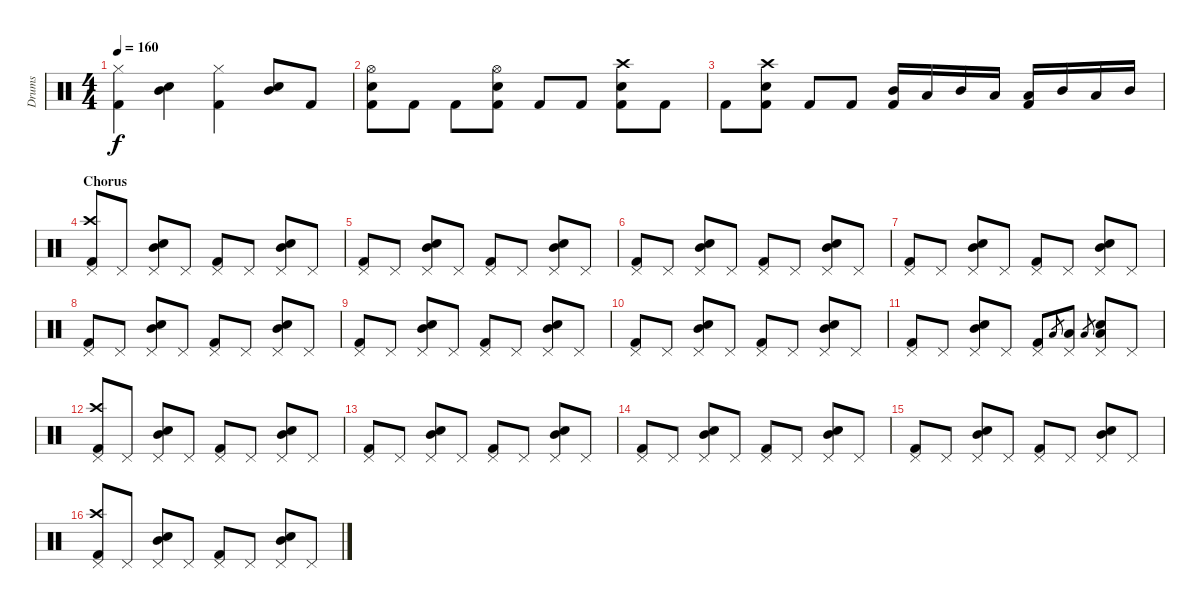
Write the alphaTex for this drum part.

\track ("Drums" "Drums") {instrument percussion}
\staff {score}
\articulation defaults
\ts (4 4)
\tempo 160
\clef neutral
\ks c
("Hi-Hat (closed)" "Kick (hit) 2").4{dy f} ("Snare (hit) 2" "Mid Tom (hit)").4 ("Hi-Hat (closed)" "Kick (hit) 2").4 ("Snare (hit) 2" "Mid Tom (hit)").8 "Kick (hit) 2".8 |
("Kick (hit) 2" "Hi-Hat (open)" "Snare (hit) 2").8 "Kick (hit) 2".8 "Kick (hit) 2".8 ("Kick (hit) 2" "Hi-Hat (open)" "Snare (hit) 2").8 "Kick (hit) 2".8 "Kick (hit) 2".8 ("Kick (hit) 2" "Crash high (hit)" "Snare (hit) 2").8 "Kick (hit) 2".8 |
"Kick (hit) 2".8 ("Kick (hit) 2" "Crash high (hit)" "Snare (hit) 2").8 "Kick (hit) 2".8 "Kick (hit) 2".8 ("Kick (hit) 2" "Mid Tom (hit)").16 "Low Tom (hit)".16 "Mid Tom (hit)".16 "Low Tom (hit)".16 ("Kick (hit) 2" "Low Tom (hit)").16 "Mid Tom (hit)".16 "Low Tom (hit)".16 "Mid Tom (hit)".16 |
\section ("" "Chorus")
("Kick (hit) 2" "Pedal Hi-Hat (hit)" "Crash high (hit)").8 "Pedal Hi-Hat (hit)".8 ("Snare (hit) 2" "Pedal Hi-Hat (hit)" "Mid Tom (hit)").8 "Pedal Hi-Hat (hit)".8 ("Kick (hit) 2" "Pedal Hi-Hat (hit)").8 "Pedal Hi-Hat (hit)".8 ("Snare (hit) 2" "Pedal Hi-Hat (hit)" "Mid Tom (hit)").8 "Pedal Hi-Hat (hit)".8 |
("Kick (hit) 2" "Pedal Hi-Hat (hit)").8 "Pedal Hi-Hat (hit)".8 ("Snare (hit) 2" "Pedal Hi-Hat (hit)" "Mid Tom (hit)").8 "Pedal Hi-Hat (hit)".8 ("Kick (hit) 2" "Pedal Hi-Hat (hit)").8 "Pedal Hi-Hat (hit)".8 ("Snare (hit) 2" "Pedal Hi-Hat (hit)" "Mid Tom (hit)").8 "Pedal Hi-Hat (hit)".8 |
("Kick (hit) 2" "Pedal Hi-Hat (hit)").8 "Pedal Hi-Hat (hit)".8 ("Snare (hit) 2" "Pedal Hi-Hat (hit)" "Mid Tom (hit)").8 "Pedal Hi-Hat (hit)".8 ("Kick (hit) 2" "Pedal Hi-Hat (hit)").8 "Pedal Hi-Hat (hit)".8 ("Snare (hit) 2" "Pedal Hi-Hat (hit)" "Mid Tom (hit)").8 "Pedal Hi-Hat (hit)".8 |
("Kick (hit) 2" "Pedal Hi-Hat (hit)").8 "Pedal Hi-Hat (hit)".8 ("Snare (hit) 2" "Pedal Hi-Hat (hit)" "Mid Tom (hit)").8 "Pedal Hi-Hat (hit)".8 ("Kick (hit) 2" "Pedal Hi-Hat (hit)").8 "Pedal Hi-Hat (hit)".8 ("Snare (hit) 2" "Pedal Hi-Hat (hit)" "Mid Tom (hit)").8 "Pedal Hi-Hat (hit)".8 |
("Kick (hit) 2" "Pedal Hi-Hat (hit)").8 "Pedal Hi-Hat (hit)".8 ("Snare (hit) 2" "Pedal Hi-Hat (hit)" "Mid Tom (hit)").8 "Pedal Hi-Hat (hit)".8 ("Kick (hit) 2" "Pedal Hi-Hat (hit)").8 "Pedal Hi-Hat (hit)".8 ("Snare (hit) 2" "Pedal Hi-Hat (hit)" "Mid Tom (hit)").8 "Pedal Hi-Hat (hit)".8 |
("Kick (hit) 2" "Pedal Hi-Hat (hit)").8 "Pedal Hi-Hat (hit)".8 ("Snare (hit) 2" "Pedal Hi-Hat (hit)" "Mid Tom (hit)").8 "Pedal Hi-Hat (hit)".8 ("Kick (hit) 2" "Pedal Hi-Hat (hit)").8 "Pedal Hi-Hat (hit)".8 ("Snare (hit) 2" "Pedal Hi-Hat (hit)" "Mid Tom (hit)").8 "Pedal Hi-Hat (hit)".8 |
("Kick (hit) 2" "Pedal Hi-Hat (hit)").8 "Pedal Hi-Hat (hit)".8 ("Snare (hit) 2" "Pedal Hi-Hat (hit)" "Mid Tom (hit)").8 "Pedal Hi-Hat (hit)".8 ("Kick (hit) 2" "Pedal Hi-Hat (hit)").8 "Pedal Hi-Hat (hit)".8 ("Snare (hit) 2" "Pedal Hi-Hat (hit)" "Mid Tom (hit)").8 "Pedal Hi-Hat (hit)".8 |
("Kick (hit) 2" "Pedal Hi-Hat (hit)").8 "Pedal Hi-Hat (hit)".8 ("Snare (hit) 2" "Pedal Hi-Hat (hit)" "Mid Tom (hit)").8 "Pedal Hi-Hat (hit)".8 ("Kick (hit) 2" "Pedal Hi-Hat (hit)").8 "Low Tom (hit)".8{gr} ("Pedal Hi-Hat (hit)" "Low Tom (hit)").8 "Low Tom (hit)".8{gr} ("Snare (hit) 2" "Pedal Hi-Hat (hit)" "Low Tom (hit)").8 "Pedal Hi-Hat (hit)".8 |
("Kick (hit) 2" "Pedal Hi-Hat (hit)" "Crash high (hit)").8 "Pedal Hi-Hat (hit)".8 ("Snare (hit) 2" "Pedal Hi-Hat (hit)" "Mid Tom (hit)").8 "Pedal Hi-Hat (hit)".8 ("Kick (hit) 2" "Pedal Hi-Hat (hit)").8 "Pedal Hi-Hat (hit)".8 ("Snare (hit) 2" "Pedal Hi-Hat (hit)" "Mid Tom (hit)").8 "Pedal Hi-Hat (hit)".8 |
("Kick (hit) 2" "Pedal Hi-Hat (hit)").8 "Pedal Hi-Hat (hit)".8 ("Snare (hit) 2" "Pedal Hi-Hat (hit)" "Mid Tom (hit)").8 "Pedal Hi-Hat (hit)".8 ("Kick (hit) 2" "Pedal Hi-Hat (hit)").8 "Pedal Hi-Hat (hit)".8 ("Snare (hit) 2" "Pedal Hi-Hat (hit)" "Mid Tom (hit)").8 "Pedal Hi-Hat (hit)".8 |
("Kick (hit) 2" "Pedal Hi-Hat (hit)").8 "Pedal Hi-Hat (hit)".8 ("Snare (hit) 2" "Pedal Hi-Hat (hit)" "Mid Tom (hit)").8 "Pedal Hi-Hat (hit)".8 ("Kick (hit) 2" "Pedal Hi-Hat (hit)").8 "Pedal Hi-Hat (hit)".8 ("Snare (hit) 2" "Pedal Hi-Hat (hit)" "Mid Tom (hit)").8 "Pedal Hi-Hat (hit)".8 |
("Kick (hit) 2" "Pedal Hi-Hat (hit)").8 "Pedal Hi-Hat (hit)".8 ("Snare (hit) 2" "Pedal Hi-Hat (hit)" "Mid Tom (hit)").8 "Pedal Hi-Hat (hit)".8 ("Kick (hit) 2" "Pedal Hi-Hat (hit)").8 "Pedal Hi-Hat (hit)".8 ("Snare (hit) 2" "Pedal Hi-Hat (hit)" "Mid Tom (hit)").8 "Pedal Hi-Hat (hit)".8 |
("Kick (hit) 2" "Pedal Hi-Hat (hit)" "Crash high (hit)").8 "Pedal Hi-Hat (hit)".8 ("Snare (hit) 2" "Pedal Hi-Hat (hit)" "Mid Tom (hit)").8 "Pedal Hi-Hat (hit)".8 ("Kick (hit) 2" "Pedal Hi-Hat (hit)").8 "Pedal Hi-Hat (hit)".8 ("Snare (hit) 2" "Pedal Hi-Hat (hit)" "Mid Tom (hit)").8 "Pedal Hi-Hat (hit)".8
